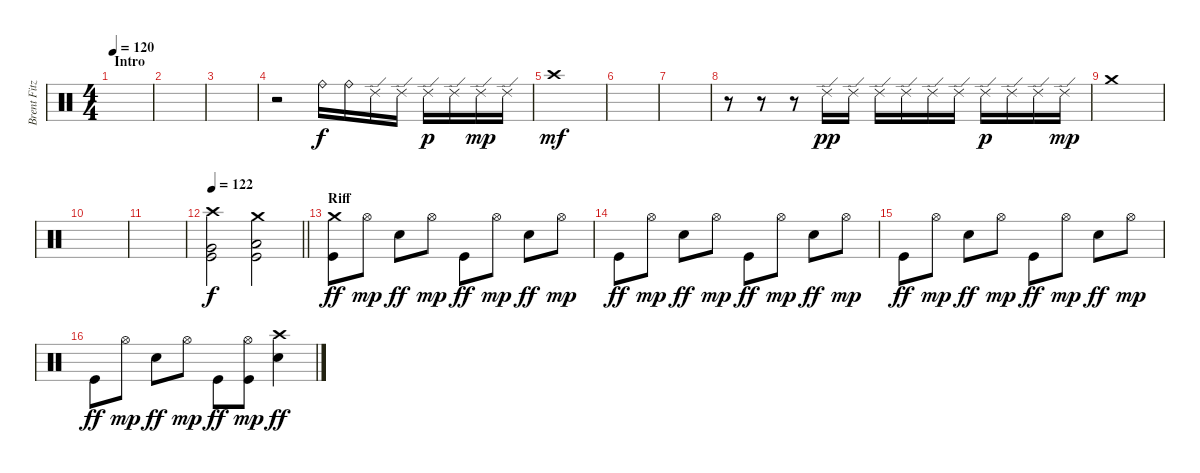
\track ("Brent Fitz" "Brent Fitz") {instrument percussion}
\staff {score}
\articulation defaults
\ts (4 4)
\section ("" "Intro")
\tempo 120
\clef neutral
\ks c
|
|
|
r.2 "Ride (bell)".16 "Ride (bell)".16 "Ride (edge) 2".16 "Ride (edge) 2".16 "Ride (edge) 2".16{dy p} "Ride (edge) 2".16 "Ride (edge) 2".16{dy mp} "Ride (edge) 2".16 |
"Crash high (hit)".1{dy mf} |
|
|
r.8 r.8 r.8 "Ride (edge) 2".16{dy pp} "Ride (edge) 2".16 "Ride (edge) 2".16 "Ride (edge) 2".16 "Ride (edge) 2".16 "Ride (edge) 2".16 "Ride (edge) 2".16{dy p} "Ride (edge) 2".16 "Ride (edge) 2".16 "Ride (edge) 2".16{dy mp} |
"Crash medium (hit)".1 |
|
|
\tempo 122
\barLineRight lightlight
("Very Low Tom (hit)" "Crash high (hit)" "Kick (hit)").2{dy f} ("Low Floor Tom (hit)" "Kick (hit)" "Crash medium (hit)").2 |
\section ("" "Riff")
("Kick (hit)" "Crash medium (hit)").8{dy ff} "Hi-Hat (open)".8{dy mp} "Snare (hit) 2".8{dy ff} "Hi-Hat (open)".8{dy mp} "Kick (hit)".8{dy ff} "Hi-Hat (open)".8{dy mp} "Snare (hit) 2".8{dy ff} "Hi-Hat (open)".8{dy mp} |
"Kick (hit)".8{dy ff} "Hi-Hat (open)".8{dy mp} "Snare (hit) 2".8{dy ff} "Hi-Hat (open)".8{dy mp} "Kick (hit)".8{dy ff} "Hi-Hat (open)".8{dy mp} "Snare (hit) 2".8{dy ff} "Hi-Hat (open)".8{dy mp} |
"Kick (hit)".8{dy ff} "Hi-Hat (open)".8{dy mp} "Snare (hit) 2".8{dy ff} "Hi-Hat (open)".8{dy mp} "Kick (hit)".8{dy ff} "Hi-Hat (open)".8{dy mp} "Snare (hit) 2".8{dy ff} "Hi-Hat (open)".8{dy mp} |
"Kick (hit)".8{dy ff} "Hi-Hat (open)".8{dy mp} "Snare (hit) 2".8{dy ff} "Hi-Hat (open)".8{dy mp} "Kick (hit)".8{dy ff} ("Hi-Hat (open)" "Kick (hit)").8{dy mp} ("Snare (hit) 2" "Crash high (hit)").4{dy ff}
